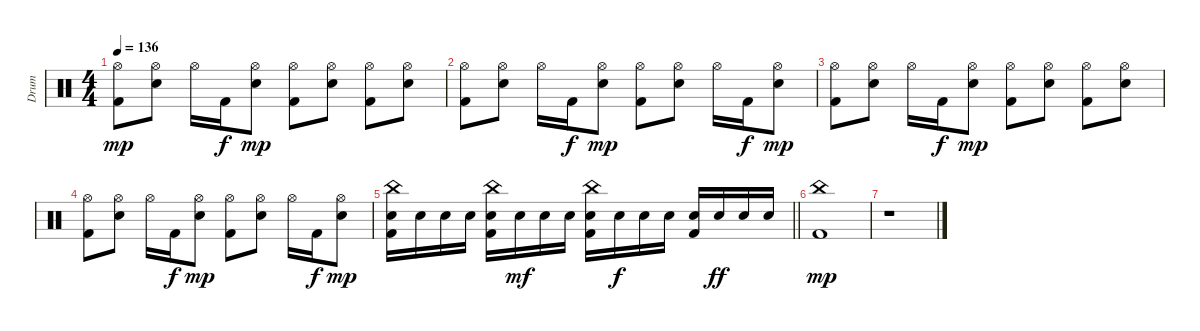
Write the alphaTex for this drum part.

\track ("Drum" "Drum") {instrument percussion}
\staff {score}
\articulation defaults
\ts (4 4)
\tempo 136
\clef neutral
\ks c
("Kick (hit) 2" "Hi-Hat (open)").8{dy mp} ("Electric Snare (hit)" "Hi-Hat (open)").8 "Hi-Hat (open)".16 "Kick (hit) 2".16{dy f} ("Electric Snare (hit)" "Hi-Hat (open)").8{dy mp} ("Kick (hit) 2" "Hi-Hat (open)").8 ("Electric Snare (hit)" "Hi-Hat (open)").8 ("Kick (hit) 2" "Hi-Hat (open)").8 ("Electric Snare (hit)" "Hi-Hat (open)").8 |
("Kick (hit) 2" "Hi-Hat (open)").8 ("Electric Snare (hit)" "Hi-Hat (open)").8 "Hi-Hat (open)".16 "Kick (hit) 2".16{dy f} ("Electric Snare (hit)" "Hi-Hat (open)").8{dy mp} ("Kick (hit) 2" "Hi-Hat (open)").8 ("Electric Snare (hit)" "Hi-Hat (open)").8 "Hi-Hat (open)".16 "Kick (hit) 2".16{dy f} ("Electric Snare (hit)" "Hi-Hat (open)").8{dy mp} |
("Kick (hit) 2" "Hi-Hat (open)").8 ("Electric Snare (hit)" "Hi-Hat (open)").8 "Hi-Hat (open)".16 "Kick (hit) 2".16{dy f} ("Electric Snare (hit)" "Hi-Hat (open)").8{dy mp} ("Kick (hit) 2" "Hi-Hat (open)").8 ("Electric Snare (hit)" "Hi-Hat (open)").8 ("Kick (hit) 2" "Hi-Hat (open)").8 ("Electric Snare (hit)" "Hi-Hat (open)").8 |
("Kick (hit) 2" "Hi-Hat (open)").8 ("Electric Snare (hit)" "Hi-Hat (open)").8 "Hi-Hat (open)".16 "Kick (hit) 2".16{dy f} ("Electric Snare (hit)" "Hi-Hat (open)").8{dy mp} ("Kick (hit) 2" "Hi-Hat (open)").8 ("Electric Snare (hit)" "Hi-Hat (open)").8 "Hi-Hat (open)".16 "Kick (hit) 2".16{dy f} ("Electric Snare (hit)" "Hi-Hat (open)").8{dy mp} |
\barLineRight lightlight
("Electric Snare (hit)" "Kick (hit) 2" "China (hit)").16 "Electric Snare (hit)".16 "Electric Snare (hit)".16 "Electric Snare (hit)".16 ("Electric Snare (hit)" "Kick (hit) 2" "China (hit)").16 "Electric Snare (hit)".16{dy mf} "Electric Snare (hit)".16 "Electric Snare (hit)".16 ("Electric Snare (hit)" "Kick (hit) 2" "China (hit)").16 "Electric Snare (hit)".16{dy f} "Electric Snare (hit)".16 "Electric Snare (hit)".16 ("Electric Snare (hit)" "Kick (hit) 2").16 "Electric Snare (hit)".16{dy ff} "Electric Snare (hit)".16 "Electric Snare (hit)".16 |
("Kick (hit) 2" "China (hit)").1{dy mp} |
r.1
